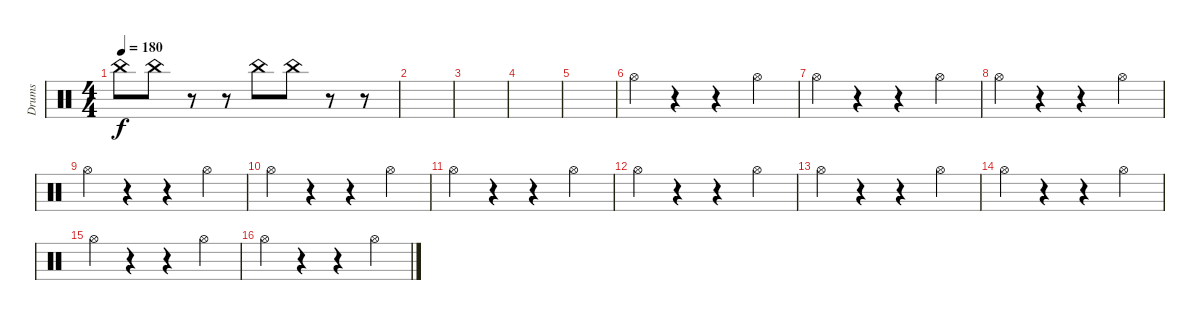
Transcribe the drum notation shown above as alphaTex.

\track ("Drums" "Drums") {instrument percussion}
\staff {score}
\articulation defaults
\ts (4 4)
\tempo 180
\clef neutral
\ks c "China (hit)".8{dy f} "China (hit)".8
r.8 r.8 "China (hit)".8 "China (hit)".8 r.8 r.8 |
|
|
|
|
"Hi-Hat (open)".4 r.4 r.4 "Hi-Hat (open)".4 |
"Hi-Hat (open)".4 r.4 r.4 "Hi-Hat (open)".4 |
"Hi-Hat (open)".4 r.4 r.4 "Hi-Hat (open)".4 |
"Hi-Hat (open)".4 r.4 r.4 "Hi-Hat (open)".4 |
"Hi-Hat (open)".4 r.4 r.4 "Hi-Hat (open)".4 |
"Hi-Hat (open)".4 r.4 r.4 "Hi-Hat (open)".4 |
"Hi-Hat (open)".4 r.4 r.4 "Hi-Hat (open)".4 |
"Hi-Hat (open)".4 r.4 r.4 "Hi-Hat (open)".4 |
"Hi-Hat (open)".4 r.4 r.4 "Hi-Hat (open)".4 |
"Hi-Hat (open)".4 r.4 r.4 "Hi-Hat (open)".4 |
"Hi-Hat (open)".4 r.4 r.4 "Hi-Hat (open)".4
